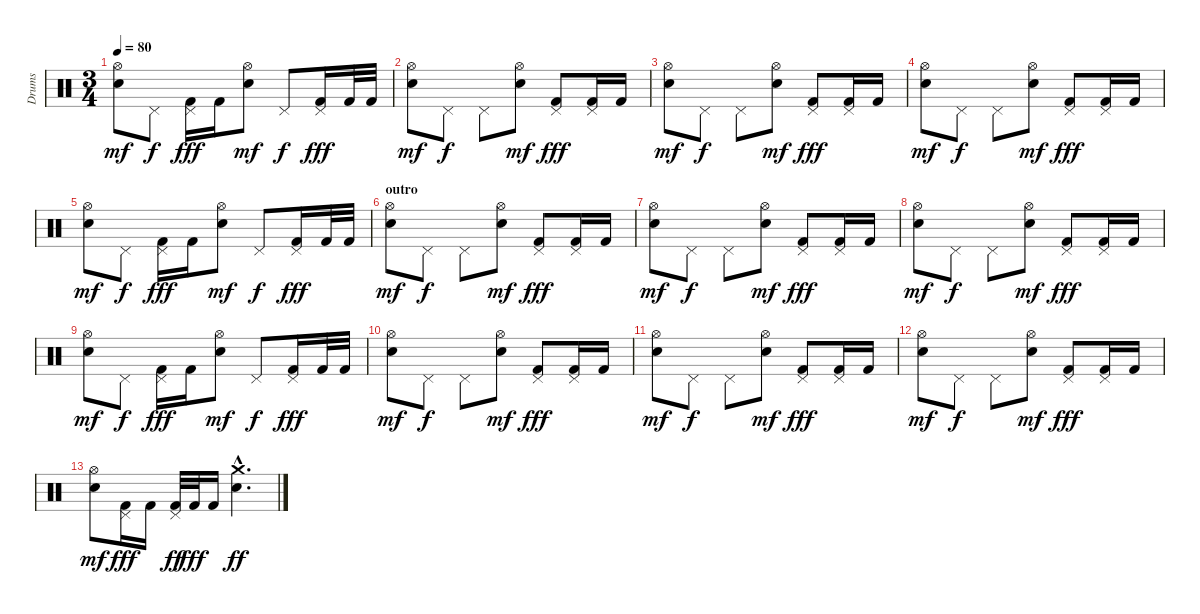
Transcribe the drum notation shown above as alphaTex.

\track ("Drums" "Drums") {instrument percussion}
\staff {score}
\articulation defaults
\ts (3 4)
\tempo 80
\clef neutral
\ks c
("Hi-Hat (open)" "Snare (hit) 2").8{dy mf} "Pedal Hi-Hat (hit)".8{dy f} ("Pedal Hi-Hat (hit)" "Kick (hit) 2").16{dy fff} "Kick (hit) 2".16 ("Hi-Hat (open)" "Snare (hit) 2").8{dy mf} "Pedal Hi-Hat (hit)".8{dy f} ("Pedal Hi-Hat (hit)" "Kick (hit) 2").16{dy fff} "Kick (hit) 2".32 "Kick (hit) 2".32 |
("Hi-Hat (open)" "Snare (hit) 2").8{dy mf} "Pedal Hi-Hat (hit)".8{dy f} "Pedal Hi-Hat (hit)".8 ("Hi-Hat (open)" "Snare (hit) 2").8{dy mf} ("Pedal Hi-Hat (hit)" "Kick (hit) 2").8{dy fff} ("Pedal Hi-Hat (hit)" "Kick (hit) 2").16 "Kick (hit) 2".16 |
("Hi-Hat (open)" "Snare (hit) 2").8{dy mf} "Pedal Hi-Hat (hit)".8{dy f} "Pedal Hi-Hat (hit)".8 ("Hi-Hat (open)" "Snare (hit) 2").8{dy mf} ("Pedal Hi-Hat (hit)" "Kick (hit) 2").8{dy fff} ("Pedal Hi-Hat (hit)" "Kick (hit) 2").16 "Kick (hit) 2".16 |
("Hi-Hat (open)" "Snare (hit) 2").8{dy mf} "Pedal Hi-Hat (hit)".8{dy f} "Pedal Hi-Hat (hit)".8 ("Hi-Hat (open)" "Snare (hit) 2").8{dy mf} ("Pedal Hi-Hat (hit)" "Kick (hit) 2").8{dy fff} ("Pedal Hi-Hat (hit)" "Kick (hit) 2").16 "Kick (hit) 2".16 |
("Hi-Hat (open)" "Snare (hit) 2").8{dy mf} "Pedal Hi-Hat (hit)".8{dy f} ("Pedal Hi-Hat (hit)" "Kick (hit) 2").16{dy fff} "Kick (hit) 2".16 ("Hi-Hat (open)" "Snare (hit) 2").8{dy mf} "Pedal Hi-Hat (hit)".8{dy f} ("Pedal Hi-Hat (hit)" "Kick (hit) 2").16{dy fff} "Kick (hit) 2".32 "Kick (hit) 2".32 |
\section ("" "outro")
("Hi-Hat (open)" "Snare (hit) 2").8{dy mf} "Pedal Hi-Hat (hit)".8{dy f} "Pedal Hi-Hat (hit)".8 ("Hi-Hat (open)" "Snare (hit) 2").8{dy mf} ("Pedal Hi-Hat (hit)" "Kick (hit) 2").8{dy fff} ("Pedal Hi-Hat (hit)" "Kick (hit) 2").16 "Kick (hit) 2".16 |
("Hi-Hat (open)" "Snare (hit) 2").8{dy mf} "Pedal Hi-Hat (hit)".8{dy f} "Pedal Hi-Hat (hit)".8 ("Hi-Hat (open)" "Snare (hit) 2").8{dy mf} ("Pedal Hi-Hat (hit)" "Kick (hit) 2").8{dy fff} ("Pedal Hi-Hat (hit)" "Kick (hit) 2").16 "Kick (hit) 2".16 |
("Hi-Hat (open)" "Snare (hit) 2").8{dy mf} "Pedal Hi-Hat (hit)".8{dy f} "Pedal Hi-Hat (hit)".8 ("Hi-Hat (open)" "Snare (hit) 2").8{dy mf} ("Pedal Hi-Hat (hit)" "Kick (hit) 2").8{dy fff} ("Pedal Hi-Hat (hit)" "Kick (hit) 2").16 "Kick (hit) 2".16 |
("Hi-Hat (open)" "Snare (hit) 2").8{dy mf} "Pedal Hi-Hat (hit)".8{dy f} ("Pedal Hi-Hat (hit)" "Kick (hit) 2").16{dy fff} "Kick (hit) 2".16 ("Hi-Hat (open)" "Snare (hit) 2").8{dy mf} "Pedal Hi-Hat (hit)".8{dy f} ("Pedal Hi-Hat (hit)" "Kick (hit) 2").16{dy fff} "Kick (hit) 2".32 "Kick (hit) 2".32 |
("Hi-Hat (open)" "Snare (hit) 2").8{dy mf} "Pedal Hi-Hat (hit)".8{dy f} "Pedal Hi-Hat (hit)".8 ("Hi-Hat (open)" "Snare (hit) 2").8{dy mf} ("Pedal Hi-Hat (hit)" "Kick (hit) 2").8{dy fff} ("Pedal Hi-Hat (hit)" "Kick (hit) 2").16 "Kick (hit) 2".16 |
("Hi-Hat (open)" "Snare (hit) 2").8{dy mf} "Pedal Hi-Hat (hit)".8{dy f} "Pedal Hi-Hat (hit)".8 ("Hi-Hat (open)" "Snare (hit) 2").8{dy mf} ("Pedal Hi-Hat (hit)" "Kick (hit) 2").8{dy fff} ("Pedal Hi-Hat (hit)" "Kick (hit) 2").16 "Kick (hit) 2".16 |
("Hi-Hat (open)" "Snare (hit) 2").8{dy mf} "Pedal Hi-Hat (hit)".8{dy f} "Pedal Hi-Hat (hit)".8 ("Hi-Hat (open)" "Snare (hit) 2").8{dy mf} ("Pedal Hi-Hat (hit)" "Kick (hit) 2").8{dy fff} ("Pedal Hi-Hat (hit)" "Kick (hit) 2").16 "Kick (hit) 2".16 |
("Hi-Hat (open)" "Snare (hit) 2").8{dy mf} ("Pedal Hi-Hat (hit)" "Kick (hit) 2").16{dy fff} "Kick (hit) 2".16 ("Pedal Hi-Hat (hit)" "Kick (hit) 2").32{dy ff} "Kick (hit) 2".32{dy fff} "Kick (hit) 2".16 ("Crash medium (hit)"{hac} "Snare (hit) 2"{hac}).4{d dy ff}
